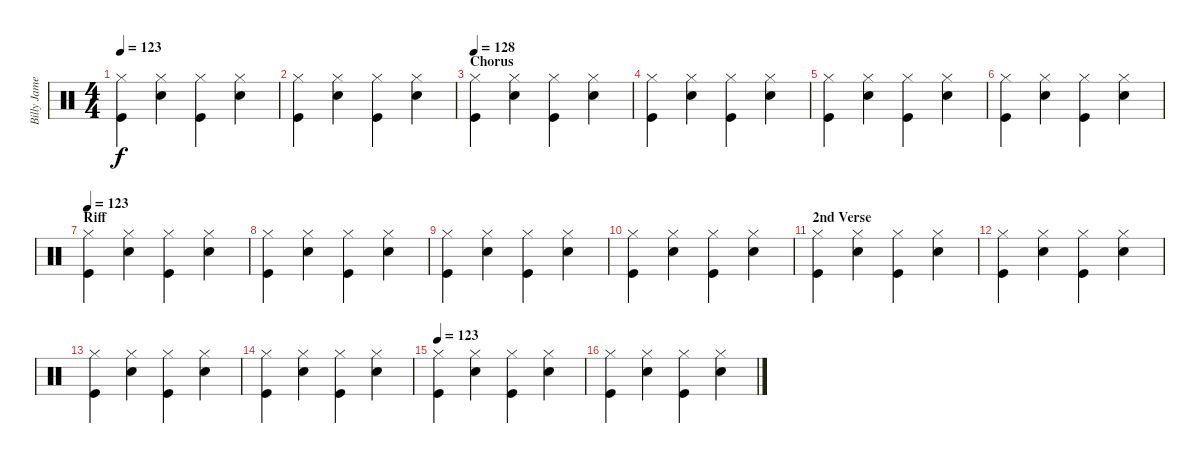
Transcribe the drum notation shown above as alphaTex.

\track ("Billy James (Drums)" "Billy Jame") {instrument percussion}
\staff {score}
\articulation defaults
\ts (4 4)
\tempo 123
\clef neutral
\ks c
("Kick (hit)" "Hi-Hat (closed)").4{dy f} ("Snare (hit) 2" "Hi-Hat (closed)").4 ("Kick (hit)" "Hi-Hat (closed)").4 ("Snare (hit) 2" "Hi-Hat (closed)").4 |
("Kick (hit)" "Hi-Hat (closed)").4 ("Snare (hit) 2" "Hi-Hat (closed)").4 ("Kick (hit)" "Hi-Hat (closed)").4 ("Snare (hit) 2" "Hi-Hat (closed)").4 |
\section ("" "Chorus")
\tempo 128
("Kick (hit)" "Hi-Hat (closed)").4 ("Snare (hit) 2" "Hi-Hat (closed)").4 ("Kick (hit)" "Hi-Hat (closed)").4 ("Snare (hit) 2" "Hi-Hat (closed)").4 |
("Kick (hit)" "Hi-Hat (closed)").4 ("Snare (hit) 2" "Hi-Hat (closed)").4 ("Kick (hit)" "Hi-Hat (closed)").4 ("Snare (hit) 2" "Hi-Hat (closed)").4 |
("Kick (hit)" "Hi-Hat (closed)").4 ("Snare (hit) 2" "Hi-Hat (closed)").4 ("Kick (hit)" "Hi-Hat (closed)").4 ("Snare (hit) 2" "Hi-Hat (closed)").4 |
("Kick (hit)" "Hi-Hat (closed)").4 ("Snare (hit) 2" "Hi-Hat (closed)").4 ("Kick (hit)" "Hi-Hat (closed)").4 ("Snare (hit) 2" "Hi-Hat (closed)").4 |
\section ("" "Riff")
\tempo 123
("Kick (hit)" "Hi-Hat (closed)").4 ("Snare (hit) 2" "Hi-Hat (closed)").4 ("Kick (hit)" "Hi-Hat (closed)").4 ("Snare (hit) 2" "Hi-Hat (closed)").4 |
("Kick (hit)" "Hi-Hat (closed)").4 ("Snare (hit) 2" "Hi-Hat (closed)").4 ("Kick (hit)" "Hi-Hat (closed)").4 ("Snare (hit) 2" "Hi-Hat (closed)").4 |
("Kick (hit)" "Hi-Hat (closed)").4 ("Snare (hit) 2" "Hi-Hat (closed)").4 ("Kick (hit)" "Hi-Hat (closed)").4 ("Snare (hit) 2" "Hi-Hat (closed)").4 |
("Kick (hit)" "Hi-Hat (closed)").4 ("Snare (hit) 2" "Hi-Hat (closed)").4 ("Kick (hit)" "Hi-Hat (closed)").4 ("Snare (hit) 2" "Hi-Hat (closed)").4 |
\section ("" "2nd Verse")
("Kick (hit)" "Hi-Hat (closed)").4 ("Snare (hit) 2" "Hi-Hat (closed)").4 ("Kick (hit)" "Hi-Hat (closed)").4 ("Snare (hit) 2" "Hi-Hat (closed)").4 |
("Kick (hit)" "Hi-Hat (closed)").4 ("Snare (hit) 2" "Hi-Hat (closed)").4 ("Kick (hit)" "Hi-Hat (closed)").4 ("Snare (hit) 2" "Hi-Hat (closed)").4 |
("Kick (hit)" "Hi-Hat (closed)").4 ("Snare (hit) 2" "Hi-Hat (closed)").4 ("Kick (hit)" "Hi-Hat (closed)").4 ("Snare (hit) 2" "Hi-Hat (closed)").4 |
("Kick (hit)" "Hi-Hat (closed)").4 ("Snare (hit) 2" "Hi-Hat (closed)").4 ("Kick (hit)" "Hi-Hat (closed)").4 ("Snare (hit) 2" "Hi-Hat (closed)").4 |
\tempo 123
("Kick (hit)" "Hi-Hat (closed)").4 ("Snare (hit) 2" "Hi-Hat (closed)").4 ("Kick (hit)" "Hi-Hat (closed)").4 ("Snare (hit) 2" "Hi-Hat (closed)").4 |
("Kick (hit)" "Hi-Hat (closed)").4 ("Snare (hit) 2" "Hi-Hat (closed)").4 ("Kick (hit)" "Hi-Hat (closed)").4 ("Snare (hit) 2" "Hi-Hat (closed)").4
